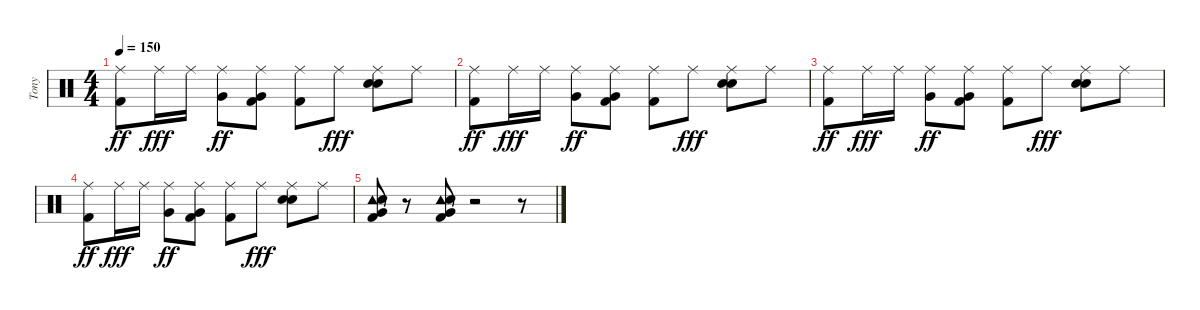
\track ("Tony" "Tony") {instrument percussion}
\staff {score}
\articulation defaults
\ts (4 4)
\tempo 150
\clef neutral
\ks c
("Ride (middle)" "Kick (hit) 2").8{dy ff} "Ride (middle)".16{dy fff} "Ride (middle)".16 ("Ride (middle)" "Very Low Tom (hit)").8{dy ff} ("Ride (middle)" "Very Low Tom (hit)" "Kick (hit) 2").8 ("Ride (middle)" "Kick (hit) 2").8 "Ride (middle)".8{dy fff} ("Ride (middle)" "Electric Snare (hit)" "Snare (hit) 2").8 "Ride (middle)".8 |
("Ride (middle)" "Kick (hit) 2").8{dy ff} "Ride (middle)".16{dy fff} "Ride (middle)".16 ("Ride (middle)" "Very Low Tom (hit)").8{dy ff} ("Ride (middle)" "Very Low Tom (hit)" "Kick (hit) 2").8 ("Ride (middle)" "Kick (hit) 2").8 "Ride (middle)".8{dy fff} ("Ride (middle)" "Electric Snare (hit)" "Snare (hit) 2").8 "Ride (middle)".8 |
("Ride (middle)" "Kick (hit) 2").8{dy ff} "Ride (middle)".16{dy fff} "Ride (middle)".16 ("Ride (middle)" "Very Low Tom (hit)").8{dy ff} ("Ride (middle)" "Very Low Tom (hit)" "Kick (hit) 2").8 ("Ride (middle)" "Kick (hit) 2").8 "Ride (middle)".8{dy fff} ("Ride (middle)" "Electric Snare (hit)" "Snare (hit) 2").8 "Ride (middle)".8 |
("Ride (middle)" "Kick (hit) 2").8{dy ff} "Ride (middle)".16{dy fff} "Ride (middle)".16 ("Ride (middle)" "Very Low Tom (hit)").8{dy ff} ("Ride (middle)" "Very Low Tom (hit)" "Kick (hit) 2").8 ("Ride (middle)" "Kick (hit) 2").8 "Ride (middle)".8{dy fff} ("Ride (middle)" "Electric Snare (hit)" "Snare (hit) 2").8 "Ride (middle)".8 |
("Very Low Tom (hit)" "Tambourine (hit)" "Kick (hit) 2" "Electric Snare (hit)").8 r.8 ("Very Low Tom (hit)" "Tambourine (hit)" "Electric Snare (hit)" "Kick (hit) 2").8 r.2 r.8
